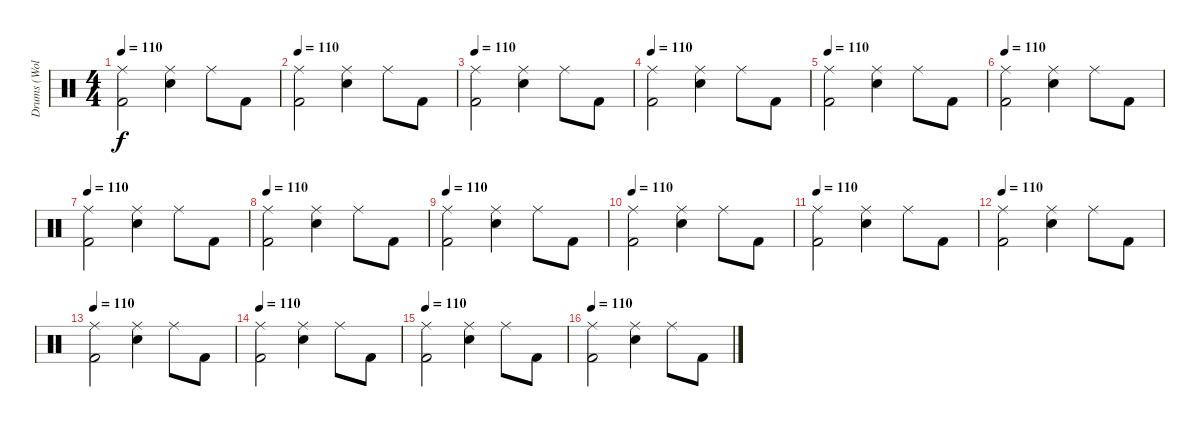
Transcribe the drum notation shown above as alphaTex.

\track ("Drums (Wolf Simons)" "Drums (Wol") {instrument percussion}
\staff {score}
\articulation defaults
\ts (4 4)
\tempo 110
\clef neutral
\ks c
("Ride (middle)" "Kick (hit) 2").2{dy f} ("Ride (middle)" "Snare (hit) 2").4 "Ride (middle)".8 "Kick (hit) 2".8 |
\tempo 110
("Ride (middle)" "Kick (hit) 2").2 ("Ride (middle)" "Snare (hit) 2").4 "Ride (middle)".8 "Kick (hit) 2".8 |
\tempo 110
("Ride (middle)" "Kick (hit) 2").2 ("Ride (middle)" "Snare (hit) 2").4 "Ride (middle)".8 "Kick (hit) 2".8 |
\tempo 110
("Ride (middle)" "Kick (hit) 2").2 ("Ride (middle)" "Snare (hit) 2").4 "Ride (middle)".8 "Kick (hit) 2".8 |
\tempo 110
("Ride (middle)" "Kick (hit) 2").2 ("Ride (middle)" "Snare (hit) 2").4 "Ride (middle)".8 "Kick (hit) 2".8 |
\tempo 110
("Ride (middle)" "Kick (hit) 2").2 ("Ride (middle)" "Snare (hit) 2").4 "Ride (middle)".8 "Kick (hit) 2".8 |
\tempo 110
("Ride (middle)" "Kick (hit) 2").2 ("Ride (middle)" "Snare (hit) 2").4 "Ride (middle)".8 "Kick (hit) 2".8 |
\tempo 110
("Ride (middle)" "Kick (hit) 2").2 ("Ride (middle)" "Snare (hit) 2").4 "Ride (middle)".8 "Kick (hit) 2".8 |
\tempo 110
("Ride (middle)" "Kick (hit) 2").2 ("Ride (middle)" "Snare (hit) 2").4 "Ride (middle)".8 "Kick (hit) 2".8 |
\tempo 110
("Ride (middle)" "Kick (hit) 2").2 ("Ride (middle)" "Snare (hit) 2").4 "Ride (middle)".8 "Kick (hit) 2".8 |
\tempo 110
("Ride (middle)" "Kick (hit) 2").2 ("Ride (middle)" "Snare (hit) 2").4 "Ride (middle)".8 "Kick (hit) 2".8 |
\tempo 110
("Ride (middle)" "Kick (hit) 2").2 ("Ride (middle)" "Snare (hit) 2").4 "Ride (middle)".8 "Kick (hit) 2".8 |
\tempo 110
("Ride (middle)" "Kick (hit) 2").2 ("Ride (middle)" "Snare (hit) 2").4 "Ride (middle)".8 "Kick (hit) 2".8 |
\tempo 110
("Ride (middle)" "Kick (hit) 2").2 ("Ride (middle)" "Snare (hit) 2").4 "Ride (middle)".8 "Kick (hit) 2".8 |
\tempo 110
("Ride (middle)" "Kick (hit) 2").2 ("Ride (middle)" "Snare (hit) 2").4 "Ride (middle)".8 "Kick (hit) 2".8 |
\tempo 110
("Ride (middle)" "Kick (hit) 2").2 ("Ride (middle)" "Snare (hit) 2").4 "Ride (middle)".8 "Kick (hit) 2".8
